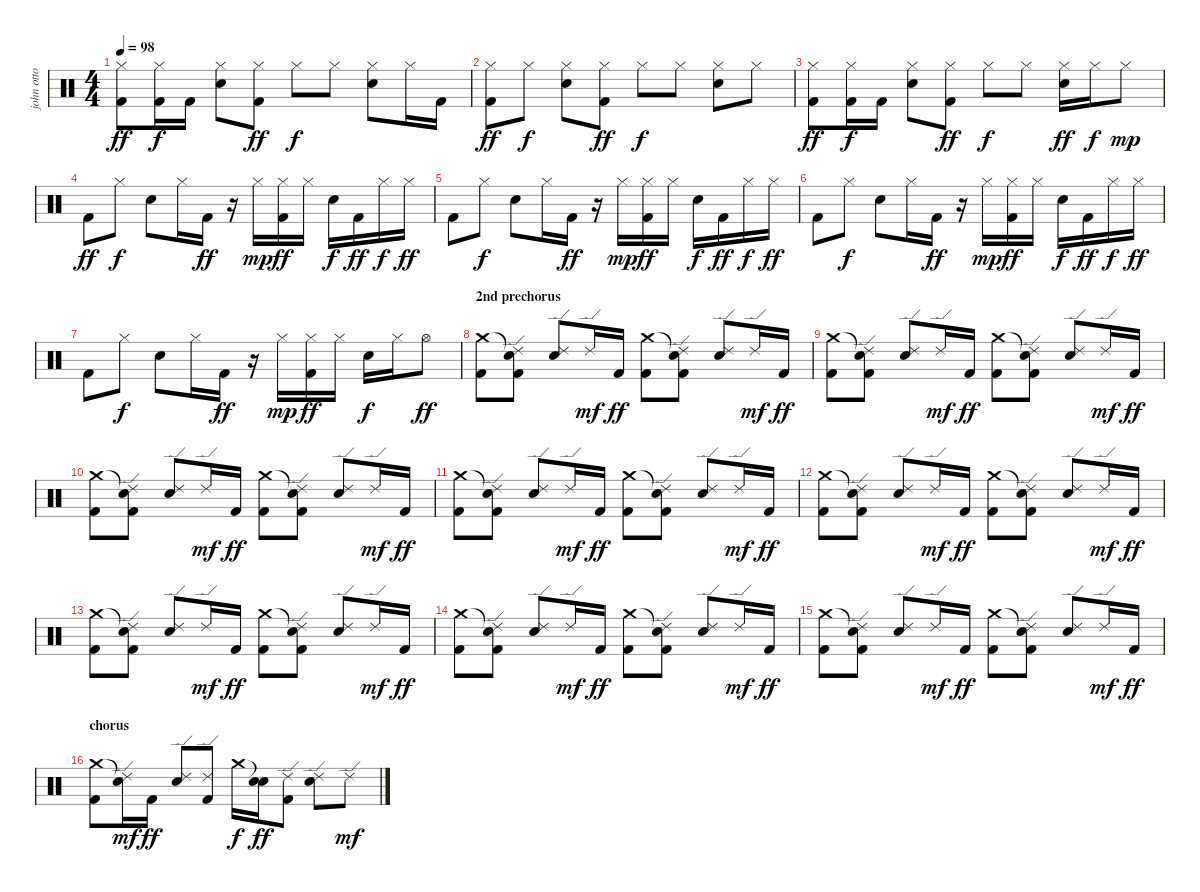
\track ("john otto" "john otto") {instrument percussion}
\staff {score}
\articulation defaults
\ts (4 4)
\tempo 98
\clef neutral
\ks c
("Hi-Hat (closed)" "Kick (hit) 2").8{dy ff} ("Hi-Hat (closed)" "Kick (hit) 2").16{dy f} "Kick (hit) 2".16 ("Hi-Hat (closed)" "Snare (hit) 2").8 ("Hi-Hat (closed)" "Kick (hit) 2").8{dy ff} "Hi-Hat (closed)".8{dy f} "Hi-Hat (closed)".8 ("Hi-Hat (closed)" "Snare (hit) 2").8 "Hi-Hat (closed)".16 "Kick (hit) 2".16 |
("Hi-Hat (closed)" "Kick (hit) 2").8{dy ff} "Hi-Hat (closed)".8{dy f} ("Hi-Hat (closed)" "Snare (hit) 2").8 ("Hi-Hat (closed)" "Kick (hit) 2").8{dy ff} "Hi-Hat (closed)".8{dy f} "Hi-Hat (closed)".8 ("Hi-Hat (closed)" "Snare (hit) 2").8 "Hi-Hat (closed)".8 |
("Hi-Hat (closed)" "Kick (hit) 2").8{dy ff} ("Hi-Hat (closed)" "Kick (hit) 2").16{dy f} "Kick (hit) 2".16 ("Hi-Hat (closed)" "Snare (hit) 2").8 ("Hi-Hat (closed)" "Kick (hit) 2").8{dy ff} "Hi-Hat (closed)".8{dy f} "Hi-Hat (closed)".8 ("Hi-Hat (closed)" "Snare (hit) 2").16{dy ff} "Hi-Hat (closed)".16{dy f} "Hi-Hat (closed)".8{dy mp} |
"Kick (hit) 2".8{dy ff} "Hi-Hat (closed)".8{dy f} "Snare (hit) 2".8 "Hi-Hat (closed)".16 "Kick (hit) 2".16{dy ff} r.16 "Hi-Hat (closed)".16{dy mp} ("Hi-Hat (closed)" "Kick (hit) 2").16{dy ff} "Hi-Hat (closed)".16 "Snare (hit) 2".16{dy f} "Kick (hit) 2".16{dy ff} "Hi-Hat (closed)".16{dy f} "Hi-Hat (closed)".16{dy ff} |
"Kick (hit) 2".8 "Hi-Hat (closed)".8{dy f} "Snare (hit) 2".8 "Hi-Hat (closed)".16 "Kick (hit) 2".16{dy ff} r.16 "Hi-Hat (closed)".16{dy mp} ("Hi-Hat (closed)" "Kick (hit) 2").16{dy ff} "Hi-Hat (closed)".16 "Snare (hit) 2".16{dy f} "Kick (hit) 2".16{dy ff} "Hi-Hat (closed)".16{dy f} "Hi-Hat (closed)".16{dy ff} |
"Kick (hit) 2".8 "Hi-Hat (closed)".8{dy f} "Snare (hit) 2".8 "Hi-Hat (closed)".16 "Kick (hit) 2".16{dy ff} r.16 "Hi-Hat (closed)".16{dy mp} ("Hi-Hat (closed)" "Kick (hit) 2").16{dy ff} "Hi-Hat (closed)".16 "Snare (hit) 2".16{dy f} "Kick (hit) 2".16{dy ff} "Hi-Hat (closed)".16{dy f} "Hi-Hat (closed)".16{dy ff} |
"Kick (hit) 2".8 "Hi-Hat (closed)".8{dy f} "Snare (hit) 2".8 "Hi-Hat (closed)".16 "Kick (hit) 2".16{dy ff} r.16 "Hi-Hat (closed)".16{dy mp} ("Hi-Hat (closed)" "Kick (hit) 2").16{dy ff} "Hi-Hat (closed)".16 "Snare (hit) 2".16{dy f} "Hi-Hat (closed)".16 "Hi-Hat (open)".8{dy ff} |
\section ("" "2nd prechorus")
("Crash medium (hit)" "Kick (hit) 2").8 ("Snare (hit)"{t} "Ride (edge) 2" "Kick (hit) 2").8 ("Ride (edge) 2" "Snare (hit) 2").8 "Ride (edge) 2".16{dy mf} "Kick (hit) 2".16{dy ff} ("Crash medium (hit)" "Kick (hit) 2").8 ("Snare (hit)"{t} "Ride (edge) 2" "Kick (hit) 2").8 ("Ride (edge) 2" "Snare (hit) 2").8 "Ride (edge) 2".16{dy mf} "Kick (hit) 2".16{dy ff} |
("Crash medium (hit)" "Kick (hit) 2").8 ("Snare (hit)"{t} "Ride (edge) 2" "Kick (hit) 2").8 ("Ride (edge) 2" "Snare (hit) 2").8 "Ride (edge) 2".16{dy mf} "Kick (hit) 2".16{dy ff} ("Crash medium (hit)" "Kick (hit) 2").8 ("Snare (hit)"{t} "Ride (edge) 2" "Kick (hit) 2").8 ("Ride (edge) 2" "Snare (hit) 2").8 "Ride (edge) 2".16{dy mf} "Kick (hit) 2".16{dy ff} |
("Crash medium (hit)" "Kick (hit) 2").8 ("Snare (hit)"{t} "Ride (edge) 2" "Kick (hit) 2").8 ("Ride (edge) 2" "Snare (hit) 2").8 "Ride (edge) 2".16{dy mf} "Kick (hit) 2".16{dy ff} ("Crash medium (hit)" "Kick (hit) 2").8 ("Snare (hit)"{t} "Ride (edge) 2" "Kick (hit) 2").8 ("Ride (edge) 2" "Snare (hit) 2").8 "Ride (edge) 2".16{dy mf} "Kick (hit) 2".16{dy ff} |
("Crash medium (hit)" "Kick (hit) 2").8 ("Snare (hit)"{t} "Ride (edge) 2" "Kick (hit) 2").8 ("Ride (edge) 2" "Snare (hit) 2").8 "Ride (edge) 2".16{dy mf} "Kick (hit) 2".16{dy ff} ("Crash medium (hit)" "Kick (hit) 2").8 ("Snare (hit)"{t} "Ride (edge) 2" "Kick (hit) 2").8 ("Ride (edge) 2" "Snare (hit) 2").8 "Ride (edge) 2".16{dy mf} "Kick (hit) 2".16{dy ff} |
("Crash medium (hit)" "Kick (hit) 2").8 ("Snare (hit)"{t} "Ride (edge) 2" "Kick (hit) 2").8 ("Ride (edge) 2" "Snare (hit) 2").8 "Ride (edge) 2".16{dy mf} "Kick (hit) 2".16{dy ff} ("Crash medium (hit)" "Kick (hit) 2").8 ("Snare (hit)"{t} "Ride (edge) 2" "Kick (hit) 2").8 ("Ride (edge) 2" "Snare (hit) 2").8 "Ride (edge) 2".16{dy mf} "Kick (hit) 2".16{dy ff} |
("Crash medium (hit)" "Kick (hit) 2").8 ("Snare (hit)"{t} "Ride (edge) 2" "Kick (hit) 2").8 ("Ride (edge) 2" "Snare (hit) 2").8 "Ride (edge) 2".16{dy mf} "Kick (hit) 2".16{dy ff} ("Crash medium (hit)" "Kick (hit) 2").8 ("Snare (hit)"{t} "Ride (edge) 2" "Kick (hit) 2").8 ("Ride (edge) 2" "Snare (hit) 2").8 "Ride (edge) 2".16{dy mf} "Kick (hit) 2".16{dy ff} |
("Crash medium (hit)" "Kick (hit) 2").8 ("Snare (hit)"{t} "Ride (edge) 2" "Kick (hit) 2").8 ("Ride (edge) 2" "Snare (hit) 2").8 "Ride (edge) 2".16{dy mf} "Kick (hit) 2".16{dy ff} ("Crash medium (hit)" "Kick (hit) 2").8 ("Snare (hit)"{t} "Ride (edge) 2" "Kick (hit) 2").8 ("Ride (edge) 2" "Snare (hit) 2").8 "Ride (edge) 2".16{dy mf} "Kick (hit) 2".16{dy ff} |
("Crash medium (hit)" "Kick (hit) 2").8 ("Snare (hit)"{t} "Ride (edge) 2" "Kick (hit) 2").8 ("Ride (edge) 2" "Snare (hit) 2").8 "Ride (edge) 2".16{dy mf} "Kick (hit) 2".16{dy ff} ("Crash medium (hit)" "Kick (hit) 2").8 ("Snare (hit)"{t} "Ride (edge) 2" "Kick (hit) 2").8 ("Ride (edge) 2" "Snare (hit) 2").8 "Ride (edge) 2".16{dy mf} "Kick (hit) 2".16{dy ff} |
\section ("" "chorus")
("Crash medium (hit)" "Kick (hit) 2").8 ("Snare (hit)"{t} "Ride (edge) 2").16{dy mf} "Kick (hit) 2".16{dy ff} ("Ride (edge) 2" "Snare (hit) 2").8 ("Ride (edge) 2" "Kick (hit) 2").8 "Crash medium (hit)".16{dy f} ("Snare (hit)"{t} "Snare (hit) 2").16{dy ff} ("Ride (edge) 2" "Kick (hit) 2").8 ("Ride (edge) 2" "Snare (hit) 2").8 "Ride (edge) 2".8{dy mf}
